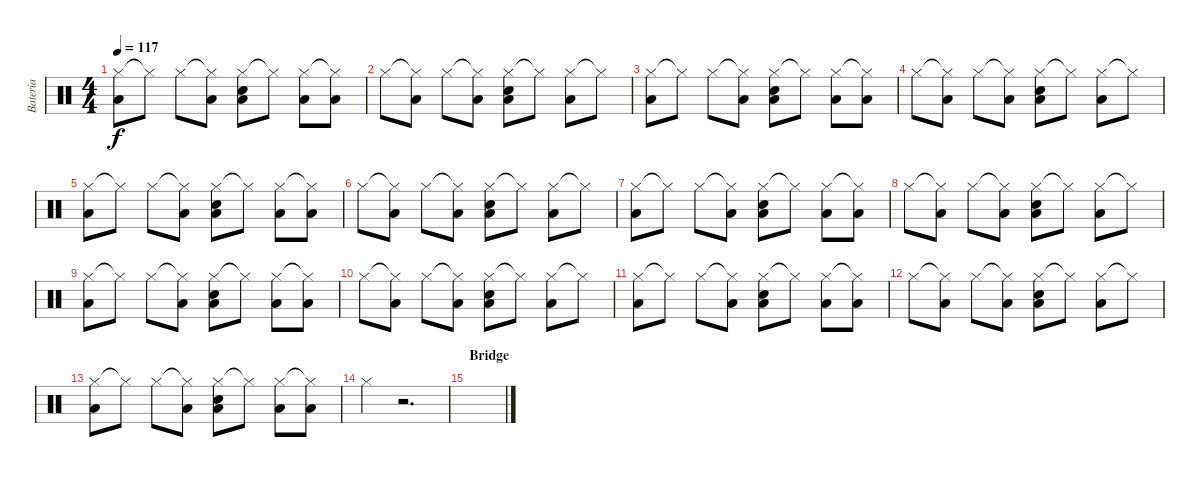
\track ("Bateria" "Bateria") {instrument percussion}
\staff {score}
\articulation defaults
\ts (4 4)
\tempo 117
\clef neutral
\ks c
("Hi-Hat (closed)" "Low Tom (hit)").8{dy f} "Hi-Hat (closed)"{t}.8 "Hi-Hat (closed)".8 ("Hi-Hat (closed)"{t} "Low Tom (hit)").8 ("Hi-Hat (closed)" "Snare (hit) 2" "Low Tom (hit)").8 "Hi-Hat (closed)"{t}.8 ("Hi-Hat (closed)" "Low Tom (hit)").8 ("Hi-Hat (closed)"{t} "Low Tom (hit)").8 |
"Hi-Hat (closed)".8 ("Hi-Hat (closed)"{t} "Low Tom (hit)").8 "Hi-Hat (closed)".8 ("Hi-Hat (closed)"{t} "Low Tom (hit)").8 ("Hi-Hat (closed)" "Snare (hit) 2" "Low Tom (hit)").8 "Hi-Hat (closed)"{t}.8 ("Hi-Hat (closed)" "Low Tom (hit)").8 "Hi-Hat (closed)"{t}.8 |
("Hi-Hat (closed)" "Low Tom (hit)").8 "Hi-Hat (closed)"{t}.8 "Hi-Hat (closed)".8 ("Hi-Hat (closed)"{t} "Low Tom (hit)").8 ("Hi-Hat (closed)" "Snare (hit) 2" "Low Tom (hit)").8 "Hi-Hat (closed)"{t}.8 ("Hi-Hat (closed)" "Low Tom (hit)").8 ("Hi-Hat (closed)"{t} "Low Tom (hit)").8 |
"Hi-Hat (closed)".8 ("Hi-Hat (closed)"{t} "Low Tom (hit)").8 "Hi-Hat (closed)".8 ("Hi-Hat (closed)"{t} "Low Tom (hit)").8 ("Hi-Hat (closed)" "Snare (hit) 2" "Low Tom (hit)").8 "Hi-Hat (closed)"{t}.8 ("Hi-Hat (closed)" "Low Tom (hit)").8 "Hi-Hat (closed)"{t}.8 |
("Hi-Hat (closed)" "Low Tom (hit)").8 "Hi-Hat (closed)"{t}.8 "Hi-Hat (closed)".8 ("Hi-Hat (closed)"{t} "Low Tom (hit)").8 ("Hi-Hat (closed)" "Snare (hit) 2" "Low Tom (hit)").8 "Hi-Hat (closed)"{t}.8 ("Hi-Hat (closed)" "Low Tom (hit)").8 ("Hi-Hat (closed)"{t} "Low Tom (hit)").8 |
"Hi-Hat (closed)".8 ("Hi-Hat (closed)"{t} "Low Tom (hit)").8 "Hi-Hat (closed)".8 ("Hi-Hat (closed)"{t} "Low Tom (hit)").8 ("Hi-Hat (closed)" "Snare (hit) 2" "Low Tom (hit)").8 "Hi-Hat (closed)"{t}.8 ("Hi-Hat (closed)" "Low Tom (hit)").8 "Hi-Hat (closed)"{t}.8 |
("Hi-Hat (closed)" "Low Tom (hit)").8 "Hi-Hat (closed)"{t}.8 "Hi-Hat (closed)".8 ("Hi-Hat (closed)"{t} "Low Tom (hit)").8 ("Hi-Hat (closed)" "Snare (hit) 2" "Low Tom (hit)").8 "Hi-Hat (closed)"{t}.8 ("Hi-Hat (closed)" "Low Tom (hit)").8 ("Hi-Hat (closed)"{t} "Low Tom (hit)").8 |
"Hi-Hat (closed)".8 ("Hi-Hat (closed)"{t} "Low Tom (hit)").8 "Hi-Hat (closed)".8 ("Hi-Hat (closed)"{t} "Low Tom (hit)").8 ("Hi-Hat (closed)" "Snare (hit) 2" "Low Tom (hit)").8 "Hi-Hat (closed)"{t}.8 ("Hi-Hat (closed)" "Low Tom (hit)").8 "Hi-Hat (closed)"{t}.8 |
("Hi-Hat (closed)" "Low Tom (hit)").8 "Hi-Hat (closed)"{t}.8 "Hi-Hat (closed)".8 ("Hi-Hat (closed)"{t} "Low Tom (hit)").8 ("Hi-Hat (closed)" "Snare (hit) 2" "Low Tom (hit)").8 "Hi-Hat (closed)"{t}.8 ("Hi-Hat (closed)" "Low Tom (hit)").8 ("Hi-Hat (closed)"{t} "Low Tom (hit)").8 |
"Hi-Hat (closed)".8 ("Hi-Hat (closed)"{t} "Low Tom (hit)").8 "Hi-Hat (closed)".8 ("Hi-Hat (closed)"{t} "Low Tom (hit)").8 ("Hi-Hat (closed)" "Snare (hit) 2" "Low Tom (hit)").8 "Hi-Hat (closed)"{t}.8 ("Hi-Hat (closed)" "Low Tom (hit)").8 "Hi-Hat (closed)"{t}.8 |
("Hi-Hat (closed)" "Low Tom (hit)").8 "Hi-Hat (closed)"{t}.8 "Hi-Hat (closed)".8 ("Hi-Hat (closed)"{t} "Low Tom (hit)").8 ("Hi-Hat (closed)" "Snare (hit) 2" "Low Tom (hit)").8 "Hi-Hat (closed)"{t}.8 ("Hi-Hat (closed)" "Low Tom (hit)").8 ("Hi-Hat (closed)"{t} "Low Tom (hit)").8 |
"Hi-Hat (closed)".8 ("Hi-Hat (closed)"{t} "Low Tom (hit)").8 "Hi-Hat (closed)".8 ("Hi-Hat (closed)"{t} "Low Tom (hit)").8 ("Hi-Hat (closed)" "Snare (hit) 2" "Low Tom (hit)").8 "Hi-Hat (closed)"{t}.8 ("Hi-Hat (closed)" "Low Tom (hit)").8 "Hi-Hat (closed)"{t}.8 |
("Hi-Hat (closed)" "Low Tom (hit)").8 "Hi-Hat (closed)"{t}.8 "Hi-Hat (closed)".8 ("Hi-Hat (closed)"{t} "Low Tom (hit)").8 ("Hi-Hat (closed)" "Snare (hit) 2" "Low Tom (hit)").8 "Hi-Hat (closed)"{t}.8 ("Hi-Hat (closed)" "Low Tom (hit)").8 ("Hi-Hat (closed)"{t} "Low Tom (hit)").8 |
"Hi-Hat (closed)".4 r.2{d} |
\section ("" "Bridge")
